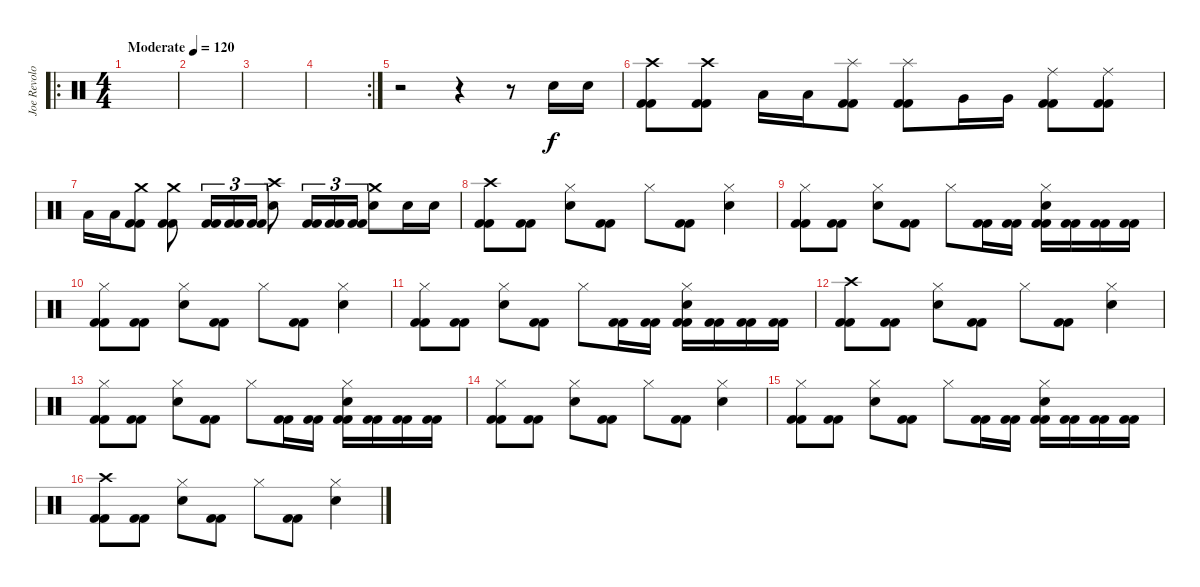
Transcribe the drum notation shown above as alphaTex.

\track ("Joe Revolo" "Joe Revolo") {instrument percussion}
\staff {score}
\articulation defaults
\ro
\ts (4 4)
\tempo (120 "Moderate")
\clef neutral
\ks c
|
|
|
\rc 2
|
r.2 r.4 r.8 "Electric Snare (hit)".16 "Electric Snare (hit)".16 |
("Crash high (hit)" "Kick (hit) 2" "Kick (hit) 2").8 ("Crash high (hit)" "Kick (hit) 2" "Kick (hit) 2").8 "Low Tom (hit)".16 "Low Tom (hit)".16 ("Splash (hit)" "Kick (hit) 2" "Kick (hit) 2").8 ("Splash (hit)" "Kick (hit) 2" "Kick (hit) 2").8 "Very Low Tom (hit)".16 "Very Low Tom (hit)".16 ("Ride (middle)" "Kick (hit) 2" "Kick (hit) 2").8 ("Ride (middle)" "Kick (hit) 2" "Kick (hit) 2").8 |
"Low Floor Tom (hit)".16 "Low Floor Tom (hit)".16 ("Crash medium (hit)" "Kick (hit) 2" "Kick (hit) 2").8 ("Crash medium (hit)" "Kick (hit) 2" "Kick (hit) 2").8 ("Kick (hit) 2" "Kick (hit) 2").16{tu (3 2)} ("Kick (hit) 2" "Kick (hit) 2").16{tu (3 2)} ("Kick (hit) 2" "Kick (hit) 2").16{tu (3 2)} ("Crash high (hit)" "Electric Snare (hit)").8 ("Kick (hit) 2" "Kick (hit) 2").16{tu (3 2)} ("Kick (hit) 2" "Kick (hit) 2").16{tu (3 2)} ("Kick (hit) 2" "Kick (hit) 2").16{tu (3 2)} ("Crash medium (hit)" "Electric Snare (hit)").8 "Electric Snare (hit)".16 "Electric Snare (hit)".16 |
("Crash high (hit)" "Kick (hit) 2" "Kick (hit) 2").8 ("Kick (hit) 2" "Kick (hit) 2").8 ("Hi-Hat (closed)" "Electric Snare (hit)").8 ("Kick (hit) 2" "Kick (hit) 2").8 "Hi-Hat (closed)".8 ("Kick (hit) 2" "Kick (hit) 2").8 ("Hi-Hat (closed)" "Electric Snare (hit)").4 |
("Hi-Hat (closed)" "Kick (hit) 2" "Kick (hit) 2").8 ("Kick (hit) 2" "Kick (hit) 2").8 ("Hi-Hat (closed)" "Electric Snare (hit)").8 ("Kick (hit) 2" "Kick (hit) 2").8 "Hi-Hat (closed)".8 ("Kick (hit) 2" "Kick (hit) 2").16 ("Kick (hit) 2" "Kick (hit) 2").16 ("Hi-Hat (closed)" "Electric Snare (hit)" "Kick (hit) 2" "Kick (hit) 2").16 ("Kick (hit) 2" "Kick (hit) 2").16 ("Kick (hit) 2" "Kick (hit) 2").16 ("Kick (hit) 2" "Kick (hit) 2").16 |
("Hi-Hat (closed)" "Kick (hit) 2" "Kick (hit) 2").8 ("Kick (hit) 2" "Kick (hit) 2").8 ("Hi-Hat (closed)" "Electric Snare (hit)").8 ("Kick (hit) 2" "Kick (hit) 2").8 "Hi-Hat (closed)".8 ("Kick (hit) 2" "Kick (hit) 2").8 ("Hi-Hat (closed)" "Electric Snare (hit)").4 |
("Hi-Hat (closed)" "Kick (hit) 2" "Kick (hit) 2").8 ("Kick (hit) 2" "Kick (hit) 2").8 ("Hi-Hat (closed)" "Electric Snare (hit)").8 ("Kick (hit) 2" "Kick (hit) 2").8 "Hi-Hat (closed)".8 ("Kick (hit) 2" "Kick (hit) 2").16 ("Kick (hit) 2" "Kick (hit) 2").16 ("Hi-Hat (closed)" "Electric Snare (hit)" "Kick (hit) 2" "Kick (hit) 2").16 ("Kick (hit) 2" "Kick (hit) 2").16 ("Kick (hit) 2" "Kick (hit) 2").16 ("Kick (hit) 2" "Kick (hit) 2").16 |
("Crash high (hit)" "Kick (hit) 2" "Kick (hit) 2").8 ("Kick (hit) 2" "Kick (hit) 2").8 ("Hi-Hat (closed)" "Electric Snare (hit)").8 ("Kick (hit) 2" "Kick (hit) 2").8 "Hi-Hat (closed)".8 ("Kick (hit) 2" "Kick (hit) 2").8 ("Hi-Hat (closed)" "Electric Snare (hit)").4 |
("Hi-Hat (closed)" "Kick (hit) 2" "Kick (hit) 2").8 ("Kick (hit) 2" "Kick (hit) 2").8 ("Hi-Hat (closed)" "Electric Snare (hit)").8 ("Kick (hit) 2" "Kick (hit) 2").8 "Hi-Hat (closed)".8 ("Kick (hit) 2" "Kick (hit) 2").16 ("Kick (hit) 2" "Kick (hit) 2").16 ("Hi-Hat (closed)" "Electric Snare (hit)" "Kick (hit) 2" "Kick (hit) 2").16 ("Kick (hit) 2" "Kick (hit) 2").16 ("Kick (hit) 2" "Kick (hit) 2").16 ("Kick (hit) 2" "Kick (hit) 2").16 |
("Hi-Hat (closed)" "Kick (hit) 2" "Kick (hit) 2").8 ("Kick (hit) 2" "Kick (hit) 2").8 ("Hi-Hat (closed)" "Electric Snare (hit)").8 ("Kick (hit) 2" "Kick (hit) 2").8 "Hi-Hat (closed)".8 ("Kick (hit) 2" "Kick (hit) 2").8 ("Hi-Hat (closed)" "Electric Snare (hit)").4 |
("Hi-Hat (closed)" "Kick (hit) 2" "Kick (hit) 2").8 ("Kick (hit) 2" "Kick (hit) 2").8 ("Hi-Hat (closed)" "Electric Snare (hit)").8 ("Kick (hit) 2" "Kick (hit) 2").8 "Hi-Hat (closed)".8 ("Kick (hit) 2" "Kick (hit) 2").16 ("Kick (hit) 2" "Kick (hit) 2").16 ("Hi-Hat (closed)" "Electric Snare (hit)" "Kick (hit) 2" "Kick (hit) 2").16 ("Kick (hit) 2" "Kick (hit) 2").16 ("Kick (hit) 2" "Kick (hit) 2").16 ("Kick (hit) 2" "Kick (hit) 2").16 |
("Crash high (hit)" "Kick (hit) 2" "Kick (hit) 2").8 ("Kick (hit) 2" "Kick (hit) 2").8 ("Hi-Hat (closed)" "Electric Snare (hit)").8 ("Kick (hit) 2" "Kick (hit) 2").8 "Hi-Hat (closed)".8 ("Kick (hit) 2" "Kick (hit) 2").8 ("Hi-Hat (closed)" "Electric Snare (hit)").4
